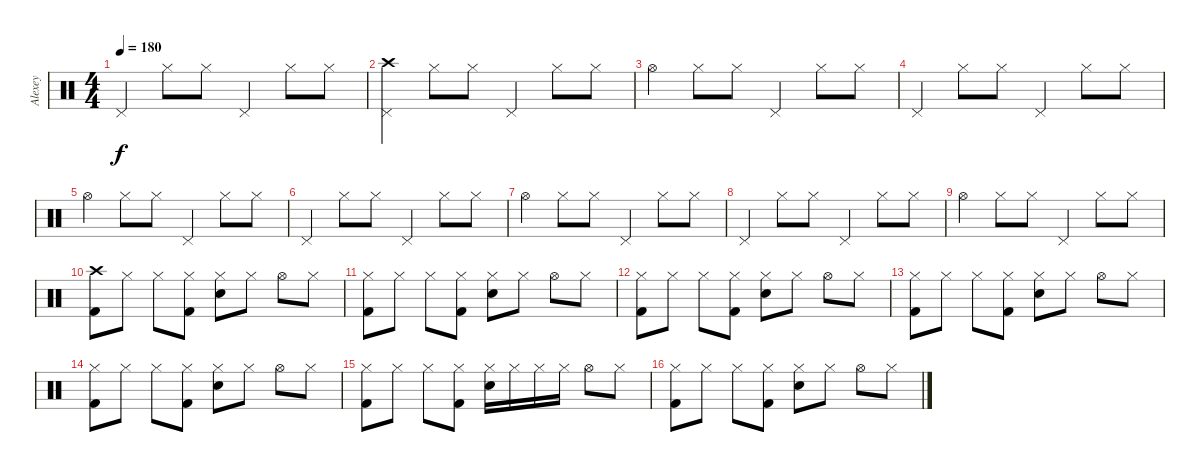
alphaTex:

\track ("Alexey" "Alexey") {instrument percussion}
\staff {score}
\articulation defaults
\ts (4 4)
\tempo 180
\clef neutral
\ks c "Pedal Hi-Hat (hit)".4{dy f} "Hi-Hat (closed)".8 "Hi-Hat (closed)".8 "Pedal Hi-Hat (hit)".4 "Hi-Hat (closed)".8 "Hi-Hat (closed)".8
|
("Pedal Hi-Hat (hit)" "Crash high (hit)").4 "Hi-Hat (closed)".8 "Hi-Hat (closed)".8 "Pedal Hi-Hat (hit)".4 "Hi-Hat (closed)".8 "Hi-Hat (closed)".8 |
"Hi-Hat (open)".4 "Hi-Hat (closed)".8 "Hi-Hat (closed)".8 "Pedal Hi-Hat (hit)".4 "Hi-Hat (closed)".8 "Hi-Hat (closed)".8 |
"Pedal Hi-Hat (hit)".4 "Hi-Hat (closed)".8 "Hi-Hat (closed)".8 "Pedal Hi-Hat (hit)".4 "Hi-Hat (closed)".8 "Hi-Hat (closed)".8 |
"Hi-Hat (open)".4 "Hi-Hat (closed)".8 "Hi-Hat (closed)".8 "Pedal Hi-Hat (hit)".4 "Hi-Hat (closed)".8 "Hi-Hat (closed)".8 |
"Pedal Hi-Hat (hit)".4 "Hi-Hat (closed)".8 "Hi-Hat (closed)".8 "Pedal Hi-Hat (hit)".4 "Hi-Hat (closed)".8 "Hi-Hat (closed)".8 |
"Hi-Hat (open)".4 "Hi-Hat (closed)".8 "Hi-Hat (closed)".8 "Pedal Hi-Hat (hit)".4 "Hi-Hat (closed)".8 "Hi-Hat (closed)".8 |
"Pedal Hi-Hat (hit)".4 "Hi-Hat (closed)".8 "Hi-Hat (closed)".8 "Pedal Hi-Hat (hit)".4 "Hi-Hat (closed)".8 "Hi-Hat (closed)".8 |
"Hi-Hat (open)".4 "Hi-Hat (closed)".8 "Hi-Hat (closed)".8 "Pedal Hi-Hat (hit)".4 "Hi-Hat (closed)".8 "Hi-Hat (closed)".8 |
("Crash high (hit)" "Kick (hit) 2").8 "Hi-Hat (closed)".8 "Hi-Hat (closed)".8 ("Hi-Hat (closed)" "Kick (hit) 2").8 ("Hi-Hat (closed)" "Snare (hit) 2").8 "Hi-Hat (closed)".8 "Hi-Hat (open)".8 "Hi-Hat (closed)".8 |
("Hi-Hat (closed)" "Kick (hit) 2").8 "Hi-Hat (closed)".8 "Hi-Hat (closed)".8 ("Hi-Hat (closed)" "Kick (hit) 2").8 ("Hi-Hat (closed)" "Snare (hit) 2").8 "Hi-Hat (closed)".8 "Hi-Hat (open)".8 "Hi-Hat (closed)".8 |
("Hi-Hat (closed)" "Kick (hit) 2").8 "Hi-Hat (closed)".8 "Hi-Hat (closed)".8 ("Hi-Hat (closed)" "Kick (hit) 2").8 ("Hi-Hat (closed)" "Snare (hit) 2").8 "Hi-Hat (closed)".8 "Hi-Hat (open)".8 "Hi-Hat (closed)".8 |
("Hi-Hat (closed)" "Kick (hit) 2").8 "Hi-Hat (closed)".8 "Hi-Hat (closed)".8 ("Hi-Hat (closed)" "Kick (hit) 2").8 ("Hi-Hat (closed)" "Snare (hit) 2").8 "Hi-Hat (closed)".8 "Hi-Hat (open)".8 "Hi-Hat (closed)".8 |
("Hi-Hat (closed)" "Kick (hit) 2").8 "Hi-Hat (closed)".8 "Hi-Hat (closed)".8 ("Hi-Hat (closed)" "Kick (hit) 2").8 ("Hi-Hat (closed)" "Snare (hit) 2").8 "Hi-Hat (closed)".8 "Hi-Hat (open)".8 "Hi-Hat (closed)".8 |
("Hi-Hat (closed)" "Kick (hit) 2").8 "Hi-Hat (closed)".8 "Hi-Hat (closed)".8 ("Hi-Hat (closed)" "Kick (hit) 2").8 ("Hi-Hat (closed)" "Snare (hit) 2").16 "Hi-Hat (closed)".16 "Hi-Hat (closed)".16 "Hi-Hat (closed)".16 "Hi-Hat (open)".8 "Hi-Hat (closed)".8 |
("Hi-Hat (closed)" "Kick (hit) 2").8 "Hi-Hat (closed)".8 "Hi-Hat (closed)".8 ("Hi-Hat (closed)" "Kick (hit) 2").8 ("Hi-Hat (closed)" "Snare (hit) 2").8 "Hi-Hat (closed)".8 "Hi-Hat (open)".8 "Hi-Hat (closed)".8
